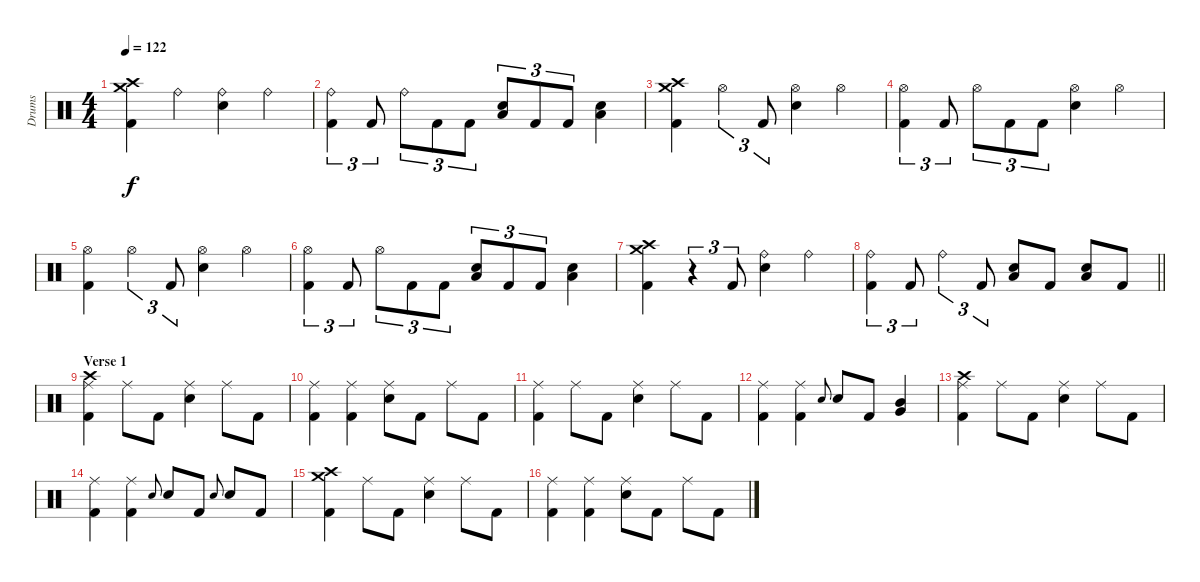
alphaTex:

\track ("Drums" "Drums") {instrument percussion}
\staff {score}
\articulation defaults
\ts (4 4)
\tempo 122
\clef neutral
\ks c
("Crash high (hit)" "Crash medium (hit)" "Kick (hit) 2").4{dy f} "Ride (bell)".4 ("Ride (bell)" "Electric Snare (hit)").4 "Ride (bell)".4 |
("Ride (bell)" "Kick (hit) 2").4{tu (3 2)} "Kick (hit) 2".8{tu (3 2)} "Ride (bell)".8{tu (3 2)} "Kick (hit) 2".8{tu (3 2)} "Kick (hit) 2".8{tu (3 2)} ("Low Floor Tom (hit)" "Electric Snare (hit)").8{tu (3 2)} "Kick (hit) 2".8{tu (3 2)} "Kick (hit) 2".8{tu (3 2)} ("Low Floor Tom (hit)" "Electric Snare (hit)").4 |
("Crash high (hit)" "Crash medium (hit)" "Kick (hit) 2").4 "Hi-Hat (open)".4{tu (3 2)} "Kick (hit) 2".8{tu (3 2)} ("Hi-Hat (open)" "Electric Snare (hit)").4 "Hi-Hat (open)".4 |
("Hi-Hat (open)" "Kick (hit) 2").4{tu (3 2)} "Kick (hit) 2".8{tu (3 2)} "Hi-Hat (open)".8{tu (3 2)} "Kick (hit) 2".8{tu (3 2)} "Kick (hit) 2".8{tu (3 2)} ("Hi-Hat (open)" "Electric Snare (hit)").4 "Hi-Hat (open)".4 |
("Hi-Hat (open)" "Kick (hit) 2").4 "Hi-Hat (open)".4{tu (3 2)} "Kick (hit) 2".8{tu (3 2)} ("Hi-Hat (open)" "Electric Snare (hit)").4 "Hi-Hat (open)".4 |
("Hi-Hat (open)" "Kick (hit) 2").4{tu (3 2)} "Kick (hit) 2".8{tu (3 2)} "Hi-Hat (open)".8{tu (3 2)} "Kick (hit) 2".8{tu (3 2)} "Kick (hit) 2".8{tu (3 2)} ("Low Floor Tom (hit)" "Electric Snare (hit)").8{tu (3 2)} "Kick (hit) 2".8{tu (3 2)} "Kick (hit) 2".8{tu (3 2)} ("Low Floor Tom (hit)" "Electric Snare (hit)").4 |
("Crash high (hit)" "Crash medium (hit)" "Kick (hit) 2").4 r.4{tu (3 2)} "Kick (hit) 2".8{tu (3 2)} ("Ride (bell)" "Electric Snare (hit)").4 "Ride (bell)".4 |
\barLineRight lightlight
("Ride (bell)" "Kick (hit) 2").4{tu (3 2)} "Kick (hit) 2".8{tu (3 2)} "Ride (bell)".4{tu (3 2)} "Kick (hit) 2".8{tu (3 2)} ("Low Floor Tom (hit)" "Electric Snare (hit)").8 "Kick (hit) 2".8 ("Low Floor Tom (hit)" "Electric Snare (hit)").8 "Kick (hit) 2".8 |
\section ("" "Verse 1")
("Crash high (hit)" "Ride (middle)" "Kick (hit) 2").4 "Ride (middle)".8 "Kick (hit) 2".8 ("Ride (middle)" "Electric Snare (hit)").4 "Ride (middle)".8 "Kick (hit) 2".8 |
("Ride (middle)" "Kick (hit) 2").4 ("Ride (middle)" "Kick (hit) 2").4 ("Ride (middle)" "Electric Snare (hit)").8 "Kick (hit) 2".8 "Ride (middle)".8 "Kick (hit) 2".8 |
("Ride (middle)" "Kick (hit) 2").4 "Ride (middle)".8 "Kick (hit) 2".8 ("Ride (middle)" "Electric Snare (hit)").4 "Ride (middle)".8 "Kick (hit) 2".8 |
("Ride (middle)" "Kick (hit) 2").4 ("Ride (middle)" "Kick (hit) 2").4 "Electric Snare (hit)".8{gr onbeat} "Electric Snare (hit)".8 "Kick (hit) 2".8 ("Mid Tom (hit)" "Very Low Tom (hit)").4{bu 30} |
("Crash high (hit)" "Ride (middle)" "Kick (hit) 2").4 "Ride (middle)".8 "Kick (hit) 2".8 ("Ride (middle)" "Electric Snare (hit)").4 "Ride (middle)".8 "Kick (hit) 2".8 |
("Ride (middle)" "Kick (hit) 2").4 ("Ride (middle)" "Kick (hit) 2").4 "Electric Snare (hit)".8{gr onbeat} "Electric Snare (hit)".8 "Kick (hit) 2".8 "Electric Snare (hit)".8{gr onbeat} "Electric Snare (hit)".8 "Kick (hit) 2".8 |
("Crash high (hit)" "Crash medium (hit)" "Kick (hit) 2").4 "Ride (middle)".8 "Kick (hit) 2".8 ("Ride (middle)" "Electric Snare (hit)").4 "Ride (middle)".8 "Kick (hit) 2".8 |
("Ride (middle)" "Kick (hit) 2").4 ("Ride (middle)" "Kick (hit) 2").4 ("Ride (middle)" "Electric Snare (hit)").8 "Kick (hit) 2".8 "Ride (middle)".8 "Kick (hit) 2".8
